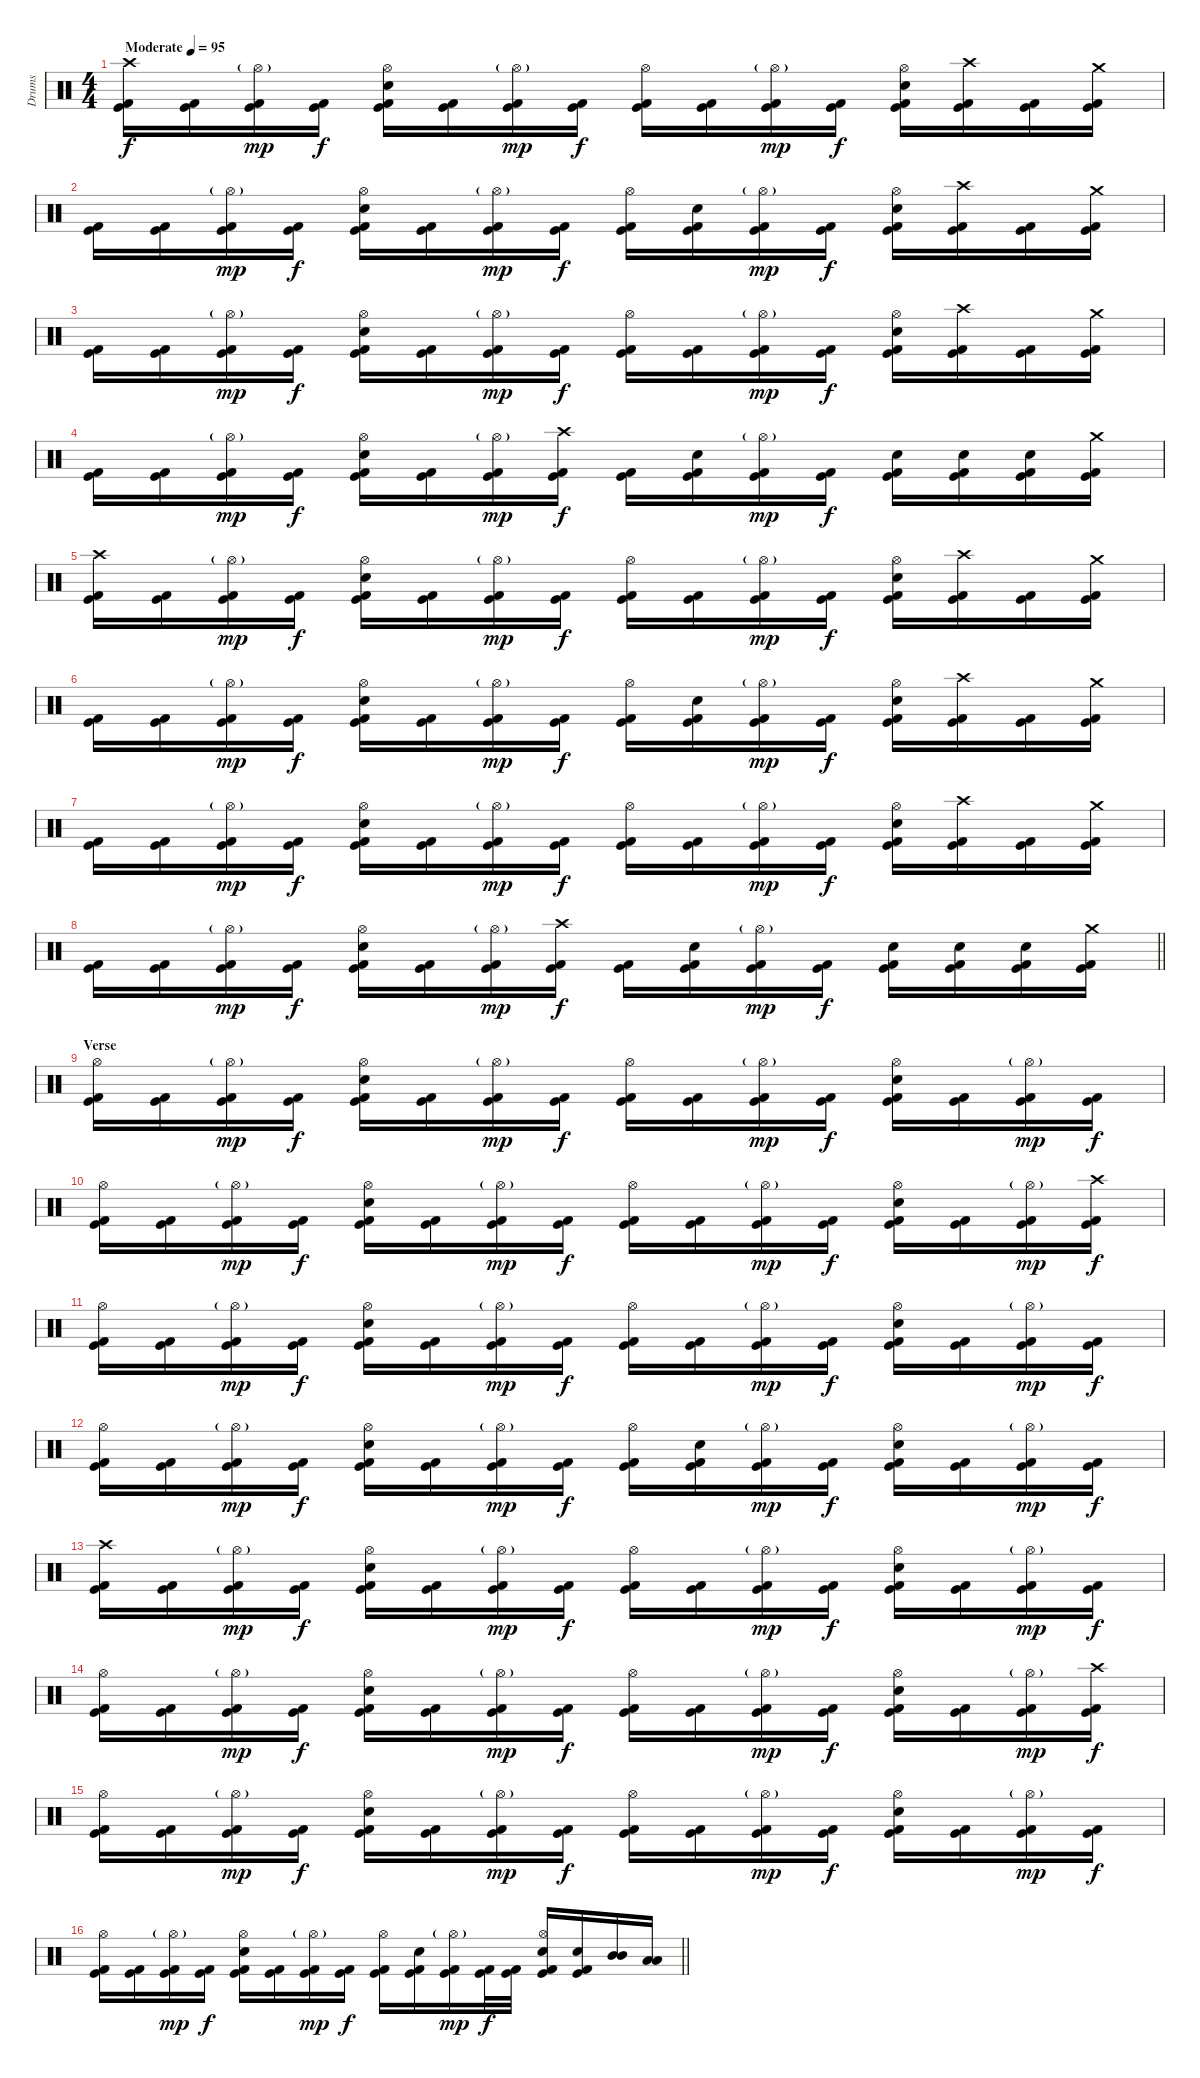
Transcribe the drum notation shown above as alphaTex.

\track ("Drums" "Drums") {instrument percussion}
\staff {score}
\articulation defaults
\ts (4 4)
\tempo (95 "Moderate")
\clef neutral
\ks c
("Crash high (hit)" "Kick (hit) 2" "Kick (hit)").16{dy f} ("Kick (hit) 2" "Kick (hit)").16 ("Hi-Hat (open)"{g} "Kick (hit) 2" "Kick (hit)").16{dy mp} ("Kick (hit) 2" "Kick (hit)").16{dy f} ("Hi-Hat (open)" "Snare (hit) 2" "Kick (hit) 2" "Kick (hit)").16 ("Kick (hit) 2" "Kick (hit)").16 ("Hi-Hat (open)"{g} "Kick (hit) 2" "Kick (hit)").16{dy mp} ("Kick (hit) 2" "Kick (hit)").16{dy f} ("Hi-Hat (open)" "Kick (hit) 2" "Kick (hit)").16 ("Kick (hit) 2" "Kick (hit)").16 ("Hi-Hat (open)"{g} "Kick (hit) 2" "Kick (hit)").16{dy mp} ("Kick (hit) 2" "Kick (hit)").16{dy f} ("Hi-Hat (open)" "Snare (hit) 2" "Kick (hit) 2" "Kick (hit)").16 ("Crash high (hit)" "Kick (hit) 2" "Kick (hit)").16 ("Kick (hit) 2" "Kick (hit)").16 ("Crash medium (hit)" "Kick (hit) 2" "Kick (hit)").16 |
("Kick (hit) 2" "Kick (hit)").16 ("Kick (hit) 2" "Kick (hit)").16 ("Hi-Hat (open)"{g} "Kick (hit) 2" "Kick (hit)").16{dy mp} ("Kick (hit) 2" "Kick (hit)").16{dy f} ("Hi-Hat (open)" "Snare (hit) 2" "Kick (hit) 2" "Kick (hit)").16 ("Kick (hit) 2" "Kick (hit)").16 ("Hi-Hat (open)"{g} "Kick (hit) 2" "Kick (hit)").16{dy mp} ("Kick (hit) 2" "Kick (hit)").16{dy f} ("Hi-Hat (open)" "Kick (hit) 2" "Kick (hit)").16 ("Snare (hit) 2" "Kick (hit) 2" "Kick (hit)").16 ("Hi-Hat (open)"{g} "Kick (hit) 2" "Kick (hit)").16{dy mp} ("Kick (hit) 2" "Kick (hit)").16{dy f} ("Hi-Hat (open)" "Snare (hit) 2" "Kick (hit) 2" "Kick (hit)").16 ("Crash high (hit)" "Kick (hit) 2" "Kick (hit)").16 ("Kick (hit) 2" "Kick (hit)").16 ("Crash medium (hit)" "Kick (hit) 2" "Kick (hit)").16 |
("Kick (hit) 2" "Kick (hit)").16 ("Kick (hit) 2" "Kick (hit)").16 ("Hi-Hat (open)"{g} "Kick (hit) 2" "Kick (hit)").16{dy mp} ("Kick (hit) 2" "Kick (hit)").16{dy f} ("Hi-Hat (open)" "Snare (hit) 2" "Kick (hit) 2" "Kick (hit)").16 ("Kick (hit) 2" "Kick (hit)").16 ("Hi-Hat (open)"{g} "Kick (hit) 2" "Kick (hit)").16{dy mp} ("Kick (hit) 2" "Kick (hit)").16{dy f} ("Hi-Hat (open)" "Kick (hit) 2" "Kick (hit)").16 ("Kick (hit) 2" "Kick (hit)").16 ("Hi-Hat (open)"{g} "Kick (hit) 2" "Kick (hit)").16{dy mp} ("Kick (hit) 2" "Kick (hit)").16{dy f} ("Hi-Hat (open)" "Snare (hit) 2" "Kick (hit) 2" "Kick (hit)").16 ("Crash high (hit)" "Kick (hit) 2" "Kick (hit)").16 ("Kick (hit) 2" "Kick (hit)").16 ("Crash medium (hit)" "Kick (hit) 2" "Kick (hit)").16 |
("Kick (hit) 2" "Kick (hit)").16 ("Kick (hit) 2" "Kick (hit)").16 ("Hi-Hat (open)"{g} "Kick (hit) 2" "Kick (hit)").16{dy mp} ("Kick (hit) 2" "Kick (hit)").16{dy f} ("Hi-Hat (open)" "Snare (hit) 2" "Kick (hit) 2" "Kick (hit)").16 ("Kick (hit) 2" "Kick (hit)").16 ("Hi-Hat (open)"{g} "Kick (hit) 2" "Kick (hit)").16{dy mp} ("Crash high (hit)" "Kick (hit) 2" "Kick (hit)").16{dy f} ("Kick (hit) 2" "Kick (hit)").16 ("Snare (hit) 2" "Kick (hit) 2" "Kick (hit)").16 ("Hi-Hat (open)"{g} "Kick (hit) 2" "Kick (hit)").16{dy mp} ("Kick (hit) 2" "Kick (hit)").16{dy f} ("Snare (hit) 2" "Kick (hit) 2" "Kick (hit)").16 ("Snare (hit) 2" "Kick (hit) 2" "Kick (hit)").16 ("Snare (hit) 2" "Kick (hit) 2" "Kick (hit)").16 ("Crash medium (hit)" "Kick (hit) 2" "Kick (hit)").16 |
("Crash high (hit)" "Kick (hit) 2" "Kick (hit)").16 ("Kick (hit) 2" "Kick (hit)").16 ("Hi-Hat (open)"{g} "Kick (hit) 2" "Kick (hit)").16{dy mp} ("Kick (hit) 2" "Kick (hit)").16{dy f} ("Hi-Hat (open)" "Snare (hit) 2" "Kick (hit) 2" "Kick (hit)").16 ("Kick (hit) 2" "Kick (hit)").16 ("Hi-Hat (open)"{g} "Kick (hit) 2" "Kick (hit)").16{dy mp} ("Kick (hit) 2" "Kick (hit)").16{dy f} ("Hi-Hat (open)" "Kick (hit) 2" "Kick (hit)").16 ("Kick (hit) 2" "Kick (hit)").16 ("Hi-Hat (open)"{g} "Kick (hit) 2" "Kick (hit)").16{dy mp} ("Kick (hit) 2" "Kick (hit)").16{dy f} ("Hi-Hat (open)" "Snare (hit) 2" "Kick (hit) 2" "Kick (hit)").16 ("Crash high (hit)" "Kick (hit) 2" "Kick (hit)").16 ("Kick (hit) 2" "Kick (hit)").16 ("Crash medium (hit)" "Kick (hit) 2" "Kick (hit)").16 |
("Kick (hit) 2" "Kick (hit)").16 ("Kick (hit) 2" "Kick (hit)").16 ("Hi-Hat (open)"{g} "Kick (hit) 2" "Kick (hit)").16{dy mp} ("Kick (hit) 2" "Kick (hit)").16{dy f} ("Hi-Hat (open)" "Snare (hit) 2" "Kick (hit) 2" "Kick (hit)").16 ("Kick (hit) 2" "Kick (hit)").16 ("Hi-Hat (open)"{g} "Kick (hit) 2" "Kick (hit)").16{dy mp} ("Kick (hit) 2" "Kick (hit)").16{dy f} ("Hi-Hat (open)" "Kick (hit) 2" "Kick (hit)").16 ("Snare (hit) 2" "Kick (hit) 2" "Kick (hit)").16 ("Hi-Hat (open)"{g} "Kick (hit) 2" "Kick (hit)").16{dy mp} ("Kick (hit) 2" "Kick (hit)").16{dy f} ("Hi-Hat (open)" "Snare (hit) 2" "Kick (hit) 2" "Kick (hit)").16 ("Crash high (hit)" "Kick (hit) 2" "Kick (hit)").16 ("Kick (hit) 2" "Kick (hit)").16 ("Crash medium (hit)" "Kick (hit) 2" "Kick (hit)").16 |
("Kick (hit) 2" "Kick (hit)").16 ("Kick (hit) 2" "Kick (hit)").16 ("Hi-Hat (open)"{g} "Kick (hit) 2" "Kick (hit)").16{dy mp} ("Kick (hit) 2" "Kick (hit)").16{dy f} ("Hi-Hat (open)" "Snare (hit) 2" "Kick (hit) 2" "Kick (hit)").16 ("Kick (hit) 2" "Kick (hit)").16 ("Hi-Hat (open)"{g} "Kick (hit) 2" "Kick (hit)").16{dy mp} ("Kick (hit) 2" "Kick (hit)").16{dy f} ("Hi-Hat (open)" "Kick (hit) 2" "Kick (hit)").16 ("Kick (hit) 2" "Kick (hit)").16 ("Hi-Hat (open)"{g} "Kick (hit) 2" "Kick (hit)").16{dy mp} ("Kick (hit) 2" "Kick (hit)").16{dy f} ("Hi-Hat (open)" "Snare (hit) 2" "Kick (hit) 2" "Kick (hit)").16 ("Crash high (hit)" "Kick (hit) 2" "Kick (hit)").16 ("Kick (hit) 2" "Kick (hit)").16 ("Crash medium (hit)" "Kick (hit) 2" "Kick (hit)").16 |
\barLineRight lightlight
("Kick (hit) 2" "Kick (hit)").16 ("Kick (hit) 2" "Kick (hit)").16 ("Hi-Hat (open)"{g} "Kick (hit) 2" "Kick (hit)").16{dy mp} ("Kick (hit) 2" "Kick (hit)").16{dy f} ("Hi-Hat (open)" "Snare (hit) 2" "Kick (hit) 2" "Kick (hit)").16 ("Kick (hit) 2" "Kick (hit)").16 ("Hi-Hat (open)"{g} "Kick (hit) 2" "Kick (hit)").16{dy mp} ("Crash high (hit)" "Kick (hit) 2" "Kick (hit)").16{dy f} ("Kick (hit) 2" "Kick (hit)").16 ("Snare (hit) 2" "Kick (hit) 2" "Kick (hit)").16 ("Hi-Hat (open)"{g} "Kick (hit) 2" "Kick (hit)").16{dy mp} ("Kick (hit) 2" "Kick (hit)").16{dy f} ("Snare (hit) 2" "Kick (hit) 2" "Kick (hit)").16 ("Snare (hit) 2" "Kick (hit) 2" "Kick (hit)").16 ("Snare (hit) 2" "Kick (hit) 2" "Kick (hit)").16 ("Crash medium (hit)" "Kick (hit) 2" "Kick (hit)").16 |
\section ("" "Verse")
("Hi-Hat (open)" "Kick (hit) 2" "Kick (hit)").16 ("Kick (hit) 2" "Kick (hit)").16 ("Hi-Hat (open)"{g} "Kick (hit) 2" "Kick (hit)").16{dy mp} ("Kick (hit) 2" "Kick (hit)").16{dy f} ("Hi-Hat (open)" "Snare (hit) 2" "Kick (hit) 2" "Kick (hit)").16 ("Kick (hit) 2" "Kick (hit)").16 ("Hi-Hat (open)"{g} "Kick (hit) 2" "Kick (hit)").16{dy mp} ("Kick (hit) 2" "Kick (hit)").16{dy f} ("Hi-Hat (open)" "Kick (hit) 2" "Kick (hit)").16 ("Kick (hit) 2" "Kick (hit)").16 ("Hi-Hat (open)"{g} "Kick (hit) 2" "Kick (hit)").16{dy mp} ("Kick (hit) 2" "Kick (hit)").16{dy f} ("Hi-Hat (open)" "Snare (hit) 2" "Kick (hit) 2" "Kick (hit)").16 ("Kick (hit) 2" "Kick (hit)").16 ("Hi-Hat (open)"{g} "Kick (hit) 2" "Kick (hit)").16{dy mp} ("Kick (hit) 2" "Kick (hit)").16{dy f} |
("Hi-Hat (open)" "Kick (hit) 2" "Kick (hit)").16 ("Kick (hit) 2" "Kick (hit)").16 ("Hi-Hat (open)"{g} "Kick (hit) 2" "Kick (hit)").16{dy mp} ("Kick (hit) 2" "Kick (hit)").16{dy f} ("Hi-Hat (open)" "Snare (hit) 2" "Kick (hit) 2" "Kick (hit)").16 ("Kick (hit) 2" "Kick (hit)").16 ("Hi-Hat (open)"{g} "Kick (hit) 2" "Kick (hit)").16{dy mp} ("Kick (hit) 2" "Kick (hit)").16{dy f} ("Hi-Hat (open)" "Kick (hit) 2" "Kick (hit)").16 ("Kick (hit) 2" "Kick (hit)").16 ("Hi-Hat (open)"{g} "Kick (hit) 2" "Kick (hit)").16{dy mp} ("Kick (hit) 2" "Kick (hit)").16{dy f} ("Hi-Hat (open)" "Snare (hit) 2" "Kick (hit) 2" "Kick (hit)").16 ("Kick (hit) 2" "Kick (hit)").16 ("Hi-Hat (open)"{g} "Kick (hit) 2" "Kick (hit)").16{dy mp} ("Crash high (hit)" "Kick (hit) 2" "Kick (hit)").16{dy f} |
("Hi-Hat (open)" "Kick (hit) 2" "Kick (hit)").16 ("Kick (hit) 2" "Kick (hit)").16 ("Hi-Hat (open)"{g} "Kick (hit) 2" "Kick (hit)").16{dy mp} ("Kick (hit) 2" "Kick (hit)").16{dy f} ("Hi-Hat (open)" "Snare (hit) 2" "Kick (hit) 2" "Kick (hit)").16 ("Kick (hit) 2" "Kick (hit)").16 ("Hi-Hat (open)"{g} "Kick (hit) 2" "Kick (hit)").16{dy mp} ("Kick (hit) 2" "Kick (hit)").16{dy f} ("Hi-Hat (open)" "Kick (hit) 2" "Kick (hit)").16 ("Kick (hit) 2" "Kick (hit)").16 ("Hi-Hat (open)"{g} "Kick (hit) 2" "Kick (hit)").16{dy mp} ("Kick (hit) 2" "Kick (hit)").16{dy f} ("Hi-Hat (open)" "Snare (hit) 2" "Kick (hit) 2" "Kick (hit)").16 ("Kick (hit) 2" "Kick (hit)").16 ("Hi-Hat (open)"{g} "Kick (hit) 2" "Kick (hit)").16{dy mp} ("Kick (hit) 2" "Kick (hit)").16{dy f} |
("Hi-Hat (open)" "Kick (hit) 2" "Kick (hit)").16 ("Kick (hit) 2" "Kick (hit)").16 ("Hi-Hat (open)"{g} "Kick (hit) 2" "Kick (hit)").16{dy mp} ("Kick (hit) 2" "Kick (hit)").16{dy f} ("Hi-Hat (open)" "Snare (hit) 2" "Kick (hit) 2" "Kick (hit)").16 ("Kick (hit) 2" "Kick (hit)").16 ("Hi-Hat (open)"{g} "Kick (hit) 2" "Kick (hit)").16{dy mp} ("Kick (hit) 2" "Kick (hit)").16{dy f} ("Hi-Hat (open)" "Kick (hit) 2" "Kick (hit)").16 ("Snare (hit) 2" "Kick (hit) 2" "Kick (hit)").16 ("Hi-Hat (open)"{g} "Kick (hit) 2" "Kick (hit)").16{dy mp} ("Kick (hit) 2" "Kick (hit)").16{dy f} ("Hi-Hat (open)" "Snare (hit) 2" "Kick (hit) 2" "Kick (hit)").16 ("Kick (hit) 2" "Kick (hit)").16 ("Hi-Hat (open)"{g} "Kick (hit) 2" "Kick (hit)").16{dy mp} ("Kick (hit) 2" "Kick (hit)").16{dy f} |
("Crash high (hit)" "Kick (hit) 2" "Kick (hit)").16 ("Kick (hit) 2" "Kick (hit)").16 ("Hi-Hat (open)"{g} "Kick (hit) 2" "Kick (hit)").16{dy mp} ("Kick (hit) 2" "Kick (hit)").16{dy f} ("Hi-Hat (open)" "Snare (hit) 2" "Kick (hit) 2" "Kick (hit)").16 ("Kick (hit) 2" "Kick (hit)").16 ("Hi-Hat (open)"{g} "Kick (hit) 2" "Kick (hit)").16{dy mp} ("Kick (hit) 2" "Kick (hit)").16{dy f} ("Hi-Hat (open)" "Kick (hit) 2" "Kick (hit)").16 ("Kick (hit) 2" "Kick (hit)").16 ("Hi-Hat (open)"{g} "Kick (hit) 2" "Kick (hit)").16{dy mp} ("Kick (hit) 2" "Kick (hit)").16{dy f} ("Hi-Hat (open)" "Snare (hit) 2" "Kick (hit) 2" "Kick (hit)").16 ("Kick (hit) 2" "Kick (hit)").16 ("Hi-Hat (open)"{g} "Kick (hit) 2" "Kick (hit)").16{dy mp} ("Kick (hit) 2" "Kick (hit)").16{dy f} |
("Hi-Hat (open)" "Kick (hit) 2" "Kick (hit)").16 ("Kick (hit) 2" "Kick (hit)").16 ("Hi-Hat (open)"{g} "Kick (hit) 2" "Kick (hit)").16{dy mp} ("Kick (hit) 2" "Kick (hit)").16{dy f} ("Hi-Hat (open)" "Snare (hit) 2" "Kick (hit) 2" "Kick (hit)").16 ("Kick (hit) 2" "Kick (hit)").16 ("Hi-Hat (open)"{g} "Kick (hit) 2" "Kick (hit)").16{dy mp} ("Kick (hit) 2" "Kick (hit)").16{dy f} ("Hi-Hat (open)" "Kick (hit) 2" "Kick (hit)").16 ("Kick (hit) 2" "Kick (hit)").16 ("Hi-Hat (open)"{g} "Kick (hit) 2" "Kick (hit)").16{dy mp} ("Kick (hit) 2" "Kick (hit)").16{dy f} ("Hi-Hat (open)" "Snare (hit) 2" "Kick (hit) 2" "Kick (hit)").16 ("Kick (hit) 2" "Kick (hit)").16 ("Hi-Hat (open)"{g} "Kick (hit) 2" "Kick (hit)").16{dy mp} ("Crash high (hit)" "Kick (hit) 2" "Kick (hit)").16{dy f} |
("Hi-Hat (open)" "Kick (hit) 2" "Kick (hit)").16 ("Kick (hit) 2" "Kick (hit)").16 ("Hi-Hat (open)"{g} "Kick (hit) 2" "Kick (hit)").16{dy mp} ("Kick (hit) 2" "Kick (hit)").16{dy f} ("Hi-Hat (open)" "Snare (hit) 2" "Kick (hit) 2" "Kick (hit)").16 ("Kick (hit) 2" "Kick (hit)").16 ("Hi-Hat (open)"{g} "Kick (hit) 2" "Kick (hit)").16{dy mp} ("Kick (hit) 2" "Kick (hit)").16{dy f} ("Hi-Hat (open)" "Kick (hit) 2" "Kick (hit)").16 ("Kick (hit) 2" "Kick (hit)").16 ("Hi-Hat (open)"{g} "Kick (hit) 2" "Kick (hit)").16{dy mp} ("Kick (hit) 2" "Kick (hit)").16{dy f} ("Hi-Hat (open)" "Snare (hit) 2" "Kick (hit) 2" "Kick (hit)").16 ("Kick (hit) 2" "Kick (hit)").16 ("Hi-Hat (open)"{g} "Kick (hit) 2" "Kick (hit)").16{dy mp} ("Kick (hit) 2" "Kick (hit)").16{dy f} |
\barLineRight lightlight
("Hi-Hat (open)" "Kick (hit) 2" "Kick (hit)").16 ("Kick (hit) 2" "Kick (hit)").16 ("Hi-Hat (open)"{g} "Kick (hit) 2" "Kick (hit)").16{dy mp} ("Kick (hit) 2" "Kick (hit)").16{dy f} ("Hi-Hat (open)" "Snare (hit) 2" "Kick (hit) 2" "Kick (hit)").16 ("Kick (hit) 2" "Kick (hit)").16 ("Hi-Hat (open)"{g} "Kick (hit) 2" "Kick (hit)").16{dy mp} ("Kick (hit) 2" "Kick (hit)").16{dy f} ("Hi-Hat (open)" "Kick (hit) 2" "Kick (hit)").16 ("Snare (hit) 2" "Kick (hit) 2" "Kick (hit)").16 ("Hi-Hat (open)"{g} "Kick (hit) 2" "Kick (hit)").16{dy mp} ("Kick (hit) 2" "Kick (hit)").32{dy f} ("Kick (hit) 2" "Kick (hit)").32 ("Hi-Hat (open)" "Snare (hit) 2" "Kick (hit) 2" "Kick (hit)").16 ("Snare (hit) 2" "Kick (hit) 2" "Kick (hit)").16 ("Mid Tom (hit)" "Mid Tom (hit)").16 ("Low Tom (hit)" "Low Tom (hit)").16
